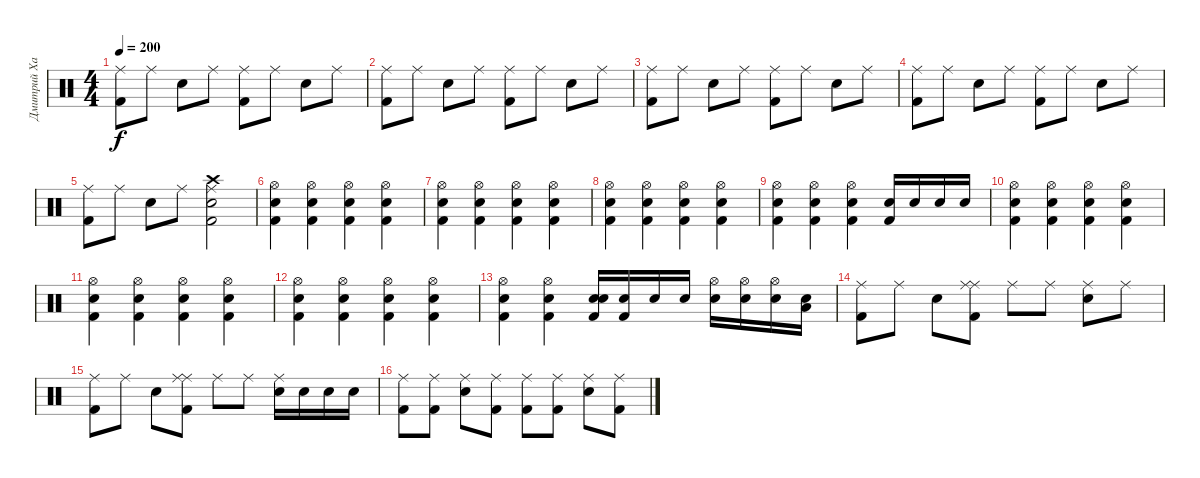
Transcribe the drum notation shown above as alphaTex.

\track ("Дмитрий Хакимов" "Дмитрий Ха") {instrument percussion}
\staff {score}
\articulation defaults
\ts (4 4)
\tempo 200
\clef neutral
\ks c
("Ride (middle)" "Kick (hit) 2").8{dy f} "Ride (middle)".8 "Electric Snare (hit)".8 "Ride (middle)".8 ("Ride (middle)" "Kick (hit) 2").8 "Ride (middle)".8 "Electric Snare (hit)".8 "Ride (middle)".8 |
("Ride (middle)" "Kick (hit) 2").8 "Ride (middle)".8 "Electric Snare (hit)".8 "Ride (middle)".8 ("Ride (middle)" "Kick (hit) 2").8 "Ride (middle)".8 "Electric Snare (hit)".8 "Ride (middle)".8 |
("Ride (middle)" "Kick (hit) 2").8 "Ride (middle)".8 "Electric Snare (hit)".8 "Ride (middle)".8 ("Ride (middle)" "Kick (hit) 2").8 "Ride (middle)".8 "Electric Snare (hit)".8 "Ride (middle)".8 |
("Ride (middle)" "Kick (hit) 2").8 "Ride (middle)".8 "Electric Snare (hit)".8 "Ride (middle)".8 ("Ride (middle)" "Kick (hit) 2").8 "Ride (middle)".8 "Electric Snare (hit)".8 "Ride (middle)".8 |
("Ride (middle)" "Kick (hit) 2").8 "Ride (middle)".8 "Electric Snare (hit)".8 "Ride (middle)".8 ("Ride (middle)" "Electric Snare (hit)" "Kick (hit) 2" "Crash high (hit)").2 |
("Hi-Hat (open)" "Electric Snare (hit)" "Kick (hit) 2").4 ("Hi-Hat (open)" "Electric Snare (hit)" "Kick (hit) 2").4 ("Hi-Hat (open)" "Electric Snare (hit)" "Kick (hit) 2").4 ("Hi-Hat (open)" "Electric Snare (hit)" "Kick (hit) 2").4 |
("Hi-Hat (open)" "Electric Snare (hit)" "Kick (hit) 2").4 ("Hi-Hat (open)" "Electric Snare (hit)" "Kick (hit) 2").4 ("Hi-Hat (open)" "Electric Snare (hit)" "Kick (hit) 2").4 ("Hi-Hat (open)" "Electric Snare (hit)" "Kick (hit) 2").4 |
("Hi-Hat (open)" "Electric Snare (hit)" "Kick (hit) 2").4 ("Hi-Hat (open)" "Electric Snare (hit)" "Kick (hit) 2").4 ("Hi-Hat (open)" "Electric Snare (hit)" "Kick (hit) 2").4 ("Hi-Hat (open)" "Electric Snare (hit)" "Kick (hit) 2").4 |
("Hi-Hat (open)" "Electric Snare (hit)" "Kick (hit) 2").4 ("Hi-Hat (open)" "Electric Snare (hit)" "Kick (hit) 2").4 ("Hi-Hat (open)" "Electric Snare (hit)" "Kick (hit) 2").4 ("Electric Snare (hit)" "Kick (hit) 2").16 "Electric Snare (hit)".16 "Electric Snare (hit)".16 "Electric Snare (hit)".16 |
("Hi-Hat (open)" "Electric Snare (hit)" "Kick (hit) 2").4 ("Hi-Hat (open)" "Electric Snare (hit)" "Kick (hit) 2").4 ("Hi-Hat (open)" "Electric Snare (hit)" "Kick (hit) 2").4 ("Hi-Hat (open)" "Electric Snare (hit)" "Kick (hit) 2").4 |
("Hi-Hat (open)" "Electric Snare (hit)" "Kick (hit) 2").4 ("Hi-Hat (open)" "Electric Snare (hit)" "Kick (hit) 2").4 ("Hi-Hat (open)" "Electric Snare (hit)" "Kick (hit) 2").4 ("Hi-Hat (open)" "Electric Snare (hit)" "Kick (hit) 2").4 |
("Hi-Hat (open)" "Electric Snare (hit)" "Kick (hit) 2").4 ("Hi-Hat (open)" "Electric Snare (hit)" "Kick (hit) 2").4 ("Hi-Hat (open)" "Electric Snare (hit)" "Kick (hit) 2").4 ("Hi-Hat (open)" "Electric Snare (hit)" "Kick (hit) 2").4 |
("Hi-Hat (open)" "Electric Snare (hit)" "Kick (hit) 2").4 ("Hi-Hat (open)" "Electric Snare (hit)" "Kick (hit) 2").4 ("Electric Snare (hit)" "Electric Snare (hit)" "Kick (hit) 2").16 ("Electric Snare (hit)" "Kick (hit) 2").16 "Electric Snare (hit)".16 "Electric Snare (hit)".16 ("Electric Snare (hit)" "Hi-Hat (open)").16 ("Electric Snare (hit)" "Hi-Hat (open)").16 ("Electric Snare (hit)" "Hi-Hat (open)").16 ("Electric Snare (hit)" "Low Tom (hit)").16 |
("Kick (hit) 2" "Ride (middle)").8 "Ride (middle)".8 "Electric Snare (hit)".8 ("Ride (middle)" "Ride (middle)" "Kick (hit) 2").8 "Ride (middle)".8 "Ride (middle)".8 ("Ride (middle)" "Electric Snare (hit)").8 "Ride (middle)".8 |
("Kick (hit) 2" "Ride (middle)").8 "Ride (middle)".8 "Electric Snare (hit)".8 ("Ride (middle)" "Ride (middle)" "Kick (hit) 2").8 "Ride (middle)".8 "Ride (middle)".8 ("Ride (middle)" "Electric Snare (hit)").16 "Electric Snare (hit)".16 "Electric Snare (hit)".16 "Electric Snare (hit)".16 |
("Kick (hit) 2" "Ride (middle)").8 ("Kick (hit) 2" "Ride (middle)").8 ("Electric Snare (hit)" "Ride (middle)").8 ("Kick (hit) 2" "Ride (middle)").8 ("Kick (hit) 2" "Ride (middle)").8 ("Kick (hit) 2" "Ride (middle)").8 ("Electric Snare (hit)" "Ride (middle)").8 ("Kick (hit) 2" "Ride (middle)").8
